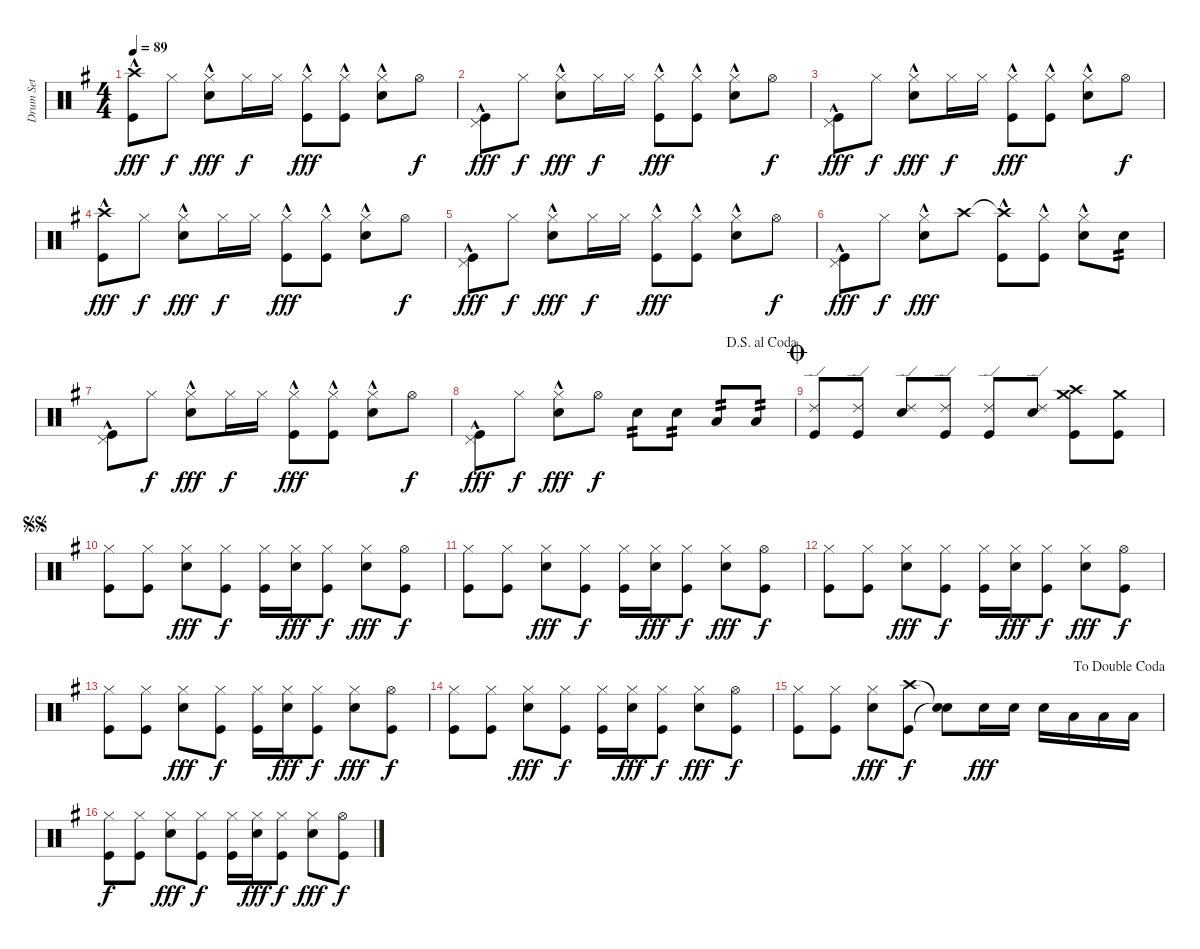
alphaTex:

\track ("Drum Set" "Drum Set") {instrument percussion}
\staff {score}
\articulation defaults
\ts (4 4)
\tempo 89
\clef neutral
\ks g
("Crash high (hit)" "Kick (hit)"{hac}).8{dy fff} "Hi-Hat (closed)".8{dy f} ("Hi-Hat (closed)" "Snare (hit) 2"{hac}).8{dy fff} "Hi-Hat (closed)".16{dy f} "Hi-Hat (closed)".16 ("Hi-Hat (closed)" "Kick (hit)"{hac}).8{dy fff} ("Hi-Hat (closed)" "Kick (hit)"{hac}).8 ("Hi-Hat (closed)" "Snare (hit) 2"{hac}).8 "Hi-Hat (open)".8{dy f} |
("Pedal Hi-Hat (hit)" "Kick (hit)"{hac}).8{dy fff} "Hi-Hat (closed)".8{dy f} ("Hi-Hat (closed)" "Snare (hit) 2"{hac}).8{dy fff} "Hi-Hat (closed)".16{dy f} "Hi-Hat (closed)".16 ("Hi-Hat (closed)" "Kick (hit)"{hac}).8{dy fff} ("Hi-Hat (closed)" "Kick (hit)"{hac}).8 ("Hi-Hat (closed)" "Snare (hit) 2"{hac}).8 "Hi-Hat (open)".8{dy f} |
("Pedal Hi-Hat (hit)" "Kick (hit)"{hac}).8{dy fff} "Hi-Hat (closed)".8{dy f} ("Hi-Hat (closed)" "Snare (hit) 2"{hac}).8{dy fff} "Hi-Hat (closed)".16{dy f} "Hi-Hat (closed)".16 ("Hi-Hat (closed)" "Kick (hit)"{hac}).8{dy fff} ("Hi-Hat (closed)" "Kick (hit)"{hac}).8 ("Hi-Hat (closed)" "Snare (hit) 2"{hac}).8 "Hi-Hat (open)".8{dy f} |
("Crash high (hit)" "Kick (hit)"{hac}).8{dy fff} "Hi-Hat (closed)".8{dy f} ("Hi-Hat (closed)" "Snare (hit) 2"{hac}).8{dy fff} "Hi-Hat (closed)".16{dy f} "Hi-Hat (closed)".16 ("Hi-Hat (closed)" "Kick (hit)"{hac}).8{dy fff} ("Hi-Hat (closed)" "Kick (hit)"{hac}).8 ("Hi-Hat (closed)" "Snare (hit) 2"{hac}).8 "Hi-Hat (open)".8{dy f} |
("Pedal Hi-Hat (hit)" "Kick (hit)"{hac}).8{dy fff} "Hi-Hat (closed)".8{dy f} ("Hi-Hat (closed)" "Snare (hit) 2"{hac}).8{dy fff} "Hi-Hat (closed)".16{dy f} "Hi-Hat (closed)".16 ("Hi-Hat (closed)" "Kick (hit)"{hac}).8{dy fff} ("Hi-Hat (closed)" "Kick (hit)"{hac}).8 ("Hi-Hat (closed)" "Snare (hit) 2"{hac}).8 "Hi-Hat (open)".8{dy f} |
("Pedal Hi-Hat (hit)" "Kick (hit)"{hac}).8{dy fff} "Hi-Hat (closed)".8{dy f} ("Hi-Hat (closed)" "Snare (hit) 2"{hac}).8{dy fff} "Crash high (hit)".8 ("Crash high (hit)"{t} "Kick (hit)"{hac}).8 ("Hi-Hat (closed)" "Kick (hit)"{hac}).8 ("Hi-Hat (closed)" "Snare (hit) 2"{hac}).8 "Snare (hit) 2".8{tp 2} |
("Pedal Hi-Hat (hit)" "Kick (hit)"{hac}).8 "Hi-Hat (closed)".8{dy f} ("Hi-Hat (closed)" "Snare (hit) 2"{hac}).8{dy fff} "Hi-Hat (closed)".16{dy f} "Hi-Hat (closed)".16 ("Hi-Hat (closed)" "Kick (hit)"{hac}).8{dy fff} ("Hi-Hat (closed)" "Kick (hit)"{hac}).8 ("Hi-Hat (closed)" "Snare (hit) 2"{hac}).8 "Hi-Hat (open)".8{dy f} |
\jump dalsegnoalcoda
("Pedal Hi-Hat (hit)" "Kick (hit)"{hac}).8{dy fff} "Hi-Hat (closed)".8{dy f} ("Hi-Hat (closed)" "Snare (hit) 2"{hac}).8{dy fff} "Hi-Hat (open)".8{dy f} "Snare (hit) 2".8{tp 2} "Snare (hit) 2".8{tp 2} "Low Tom (hit)".8{tp 2} "Low Tom (hit)".8{tp 2} |
\jump coda
("Ride (edge) 2" "Kick (hit)").8 ("Ride (edge) 2" "Kick (hit)").8 ("Ride (edge) 2" "Snare (hit) 2").8 ("Ride (edge) 2" "Kick (hit)").8 ("Ride (edge) 2" "Kick (hit)").8 ("Ride (edge) 2" "Snare (hit) 2").8 ("Crash high (hit)" "Crash medium (hit)" "Kick (hit)").8 ("Crash medium (hit)" "Kick (hit)").8 |
\jump segnosegno
("Hi-Hat (closed)" "Kick (hit)").8 ("Hi-Hat (closed)" "Kick (hit)").8 ("Hi-Hat (closed)" "Snare (hit) 2").8{dy fff} ("Hi-Hat (closed)" "Kick (hit)").8{dy f} ("Hi-Hat (closed)" "Kick (hit)").16 ("Hi-Hat (closed)" "Snare (hit) 2").16{dy fff} ("Hi-Hat (closed)" "Kick (hit)").8{dy f} ("Hi-Hat (closed)" "Snare (hit) 2").8{dy fff} ("Hi-Hat (open)" "Kick (hit)").8{dy f} |
("Hi-Hat (closed)" "Kick (hit)").8 ("Hi-Hat (closed)" "Kick (hit)").8 ("Hi-Hat (closed)" "Snare (hit) 2").8{dy fff} ("Hi-Hat (closed)" "Kick (hit)").8{dy f} ("Hi-Hat (closed)" "Kick (hit)").16 ("Hi-Hat (closed)" "Snare (hit) 2").16{dy fff} ("Hi-Hat (closed)" "Kick (hit)").8{dy f} ("Hi-Hat (closed)" "Snare (hit) 2").8{dy fff} ("Hi-Hat (open)" "Kick (hit)").8{dy f} |
("Hi-Hat (closed)" "Kick (hit)").8 ("Hi-Hat (closed)" "Kick (hit)").8 ("Hi-Hat (closed)" "Snare (hit) 2").8{dy fff} ("Hi-Hat (closed)" "Kick (hit)").8{dy f} ("Hi-Hat (closed)" "Kick (hit)").16 ("Hi-Hat (closed)" "Snare (hit) 2").16{dy fff} ("Hi-Hat (closed)" "Kick (hit)").8{dy f} ("Hi-Hat (closed)" "Snare (hit) 2").8{dy fff} ("Hi-Hat (open)" "Kick (hit)").8{dy f} |
("Hi-Hat (closed)" "Kick (hit)").8 ("Hi-Hat (closed)" "Kick (hit)").8 ("Hi-Hat (closed)" "Snare (hit) 2").8{dy fff} ("Hi-Hat (closed)" "Kick (hit)").8{dy f} ("Hi-Hat (closed)" "Kick (hit)").16 ("Hi-Hat (closed)" "Snare (hit) 2").16{dy fff} ("Hi-Hat (closed)" "Kick (hit)").8{dy f} ("Hi-Hat (closed)" "Snare (hit) 2").8{dy fff} ("Hi-Hat (open)" "Kick (hit)").8{dy f} |
("Hi-Hat (closed)" "Kick (hit)").8 ("Hi-Hat (closed)" "Kick (hit)").8 ("Hi-Hat (closed)" "Snare (hit) 2").8{dy fff} ("Hi-Hat (closed)" "Kick (hit)").8{dy f} ("Hi-Hat (closed)" "Kick (hit)").16 ("Hi-Hat (closed)" "Snare (hit) 2").16{dy fff} ("Hi-Hat (closed)" "Kick (hit)").8{dy f} ("Hi-Hat (closed)" "Snare (hit) 2").8{dy fff} ("Hi-Hat (open)" "Kick (hit)").8{dy f} |
\jump dadoublecoda
("Hi-Hat (closed)" "Kick (hit)").8 ("Hi-Hat (closed)" "Kick (hit)").8 ("Hi-Hat (closed)" "Snare (hit) 2").8{dy fff} ("Crash high (hit)" "Kick (hit)").8{dy f} ("Snare (hit)"{t} "Snare (hit)"{t}).8 "Snare (hit) 2".16{dy fff} "Snare (hit) 2".16 "Snare (hit) 2".16 "Low Tom (hit)".16 "Low Tom (hit)".16 "Low Tom (hit)".16 |
("Hi-Hat (closed)" "Kick (hit)").8{dy f} ("Hi-Hat (closed)" "Kick (hit)").8 ("Hi-Hat (closed)" "Snare (hit) 2").8{dy fff} ("Hi-Hat (closed)" "Kick (hit)").8{dy f} ("Hi-Hat (closed)" "Kick (hit)").16 ("Hi-Hat (closed)" "Snare (hit) 2").16{dy fff} ("Hi-Hat (closed)" "Kick (hit)").8{dy f} ("Hi-Hat (closed)" "Snare (hit) 2").8{dy fff} ("Hi-Hat (open)" "Kick (hit)").8{dy f}
